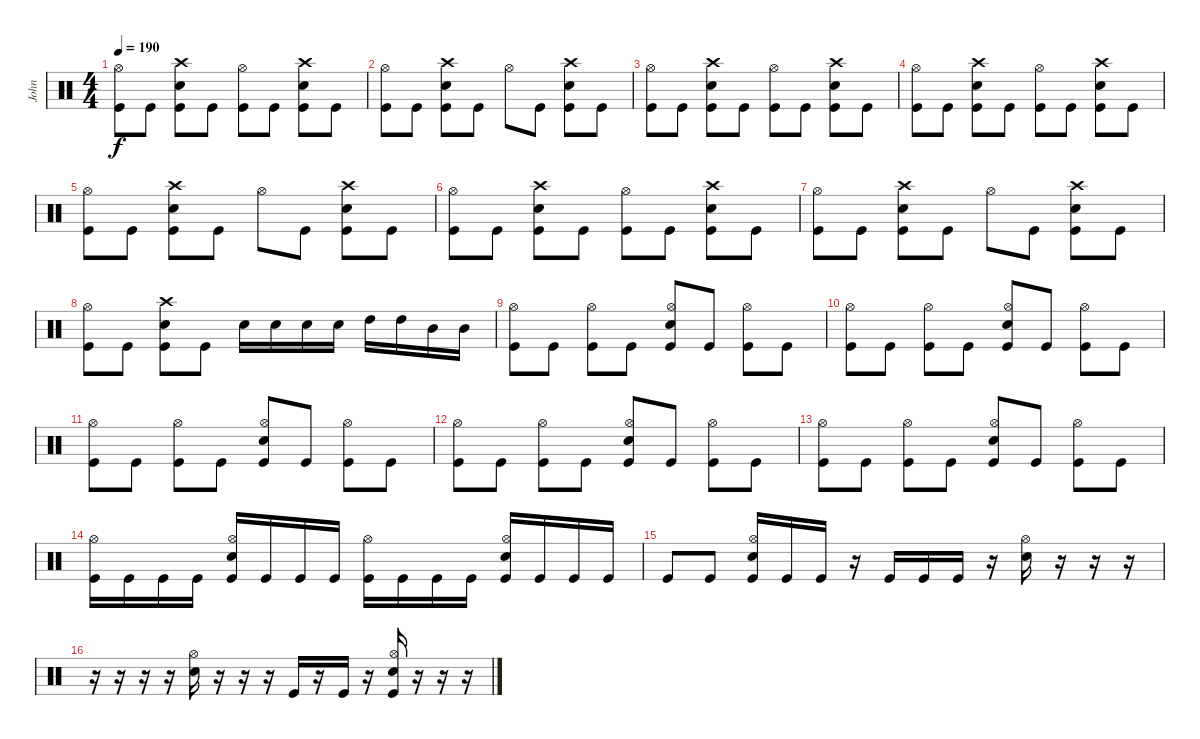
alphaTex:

\track ("John" "John") {instrument percussion}
\staff {score}
\articulation defaults
\ts (4 4)
\tempo 190
\clef neutral
\ks c
("Kick (hit)" "Hi-Hat (open)").8{dy f} "Kick (hit)".8 ("Kick (hit)" "Snare (hit) 2" "Crash high (hit)").8 "Kick (hit)".8 ("Kick (hit)" "Hi-Hat (open)").8 "Kick (hit)".8 ("Kick (hit)" "Snare (hit) 2" "Crash high (hit)").8 "Kick (hit)".8 |
("Kick (hit)" "Hi-Hat (open)").8 "Kick (hit)".8 ("Kick (hit)" "Snare (hit) 2" "Crash high (hit)").8 "Kick (hit)".8 "Hi-Hat (open)".8 "Kick (hit)".8 ("Kick (hit)" "Snare (hit) 2" "Crash high (hit)").8 "Kick (hit)".8 |
("Kick (hit)" "Hi-Hat (open)").8 "Kick (hit)".8 ("Kick (hit)" "Snare (hit) 2" "Crash high (hit)").8 "Kick (hit)".8 ("Kick (hit)" "Hi-Hat (open)").8 "Kick (hit)".8 ("Kick (hit)" "Snare (hit) 2" "Crash high (hit)").8 "Kick (hit)".8 |
("Kick (hit)" "Hi-Hat (open)").8 "Kick (hit)".8 ("Kick (hit)" "Snare (hit) 2" "Crash high (hit)").8 "Kick (hit)".8 ("Kick (hit)" "Hi-Hat (open)").8 "Kick (hit)".8 ("Kick (hit)" "Snare (hit) 2" "Crash high (hit)").8 "Kick (hit)".8 |
("Kick (hit)" "Hi-Hat (open)").8 "Kick (hit)".8 ("Kick (hit)" "Snare (hit) 2" "Crash high (hit)").8 "Kick (hit)".8 "Hi-Hat (open)".8 "Kick (hit)".8 ("Kick (hit)" "Snare (hit) 2" "Crash high (hit)").8 "Kick (hit)".8 |
("Kick (hit)" "Hi-Hat (open)").8 "Kick (hit)".8 ("Kick (hit)" "Snare (hit) 2" "Crash high (hit)").8 "Kick (hit)".8 ("Kick (hit)" "Hi-Hat (open)").8 "Kick (hit)".8 ("Kick (hit)" "Snare (hit) 2" "Crash high (hit)").8 "Kick (hit)".8 |
("Kick (hit)" "Hi-Hat (open)").8 "Kick (hit)".8 ("Kick (hit)" "Snare (hit) 2" "Crash high (hit)").8 "Kick (hit)".8 "Hi-Hat (open)".8 "Kick (hit)".8 ("Kick (hit)" "Snare (hit) 2" "Crash high (hit)").8 "Kick (hit)".8 |
("Kick (hit)" "Hi-Hat (open)").8 "Kick (hit)".8 ("Kick (hit)" "Snare (hit) 2" "Crash high (hit)").8 "Kick (hit)".8 "Snare (hit) 2".16 "Snare (hit) 2".16 "Snare (hit) 2".16 "Snare (hit) 2".16 "High Tom (hit)".16 "High Tom (hit)".16 "Mid Tom (hit)".16 "Mid Tom (hit)".16 |
("Kick (hit)" "Hi-Hat (open)").8 "Kick (hit)".8 ("Kick (hit)" "Hi-Hat (open)").8 "Kick (hit)".8 ("Kick (hit)" "Snare (hit) 2" "Hi-Hat (open)").8 "Kick (hit)".8 ("Kick (hit)" "Hi-Hat (open)").8 "Kick (hit)".8 |
("Kick (hit)" "Hi-Hat (open)").8 "Kick (hit)".8 ("Kick (hit)" "Hi-Hat (open)").8 "Kick (hit)".8 ("Kick (hit)" "Snare (hit) 2" "Hi-Hat (open)").8 "Kick (hit)".8 ("Kick (hit)" "Hi-Hat (open)").8 "Kick (hit)".8 |
("Kick (hit)" "Hi-Hat (open)").8 "Kick (hit)".8 ("Kick (hit)" "Hi-Hat (open)").8 "Kick (hit)".8 ("Kick (hit)" "Snare (hit) 2" "Hi-Hat (open)").8 "Kick (hit)".8 ("Kick (hit)" "Hi-Hat (open)").8 "Kick (hit)".8 |
("Kick (hit)" "Hi-Hat (open)").8 "Kick (hit)".8 ("Kick (hit)" "Hi-Hat (open)").8 "Kick (hit)".8 ("Kick (hit)" "Snare (hit) 2" "Hi-Hat (open)").8 "Kick (hit)".8 ("Kick (hit)" "Hi-Hat (open)").8 "Kick (hit)".8 |
("Kick (hit)" "Hi-Hat (open)").8 "Kick (hit)".8 ("Kick (hit)" "Hi-Hat (open)").8 "Kick (hit)".8 ("Kick (hit)" "Snare (hit) 2" "Hi-Hat (open)").8 "Kick (hit)".8 ("Kick (hit)" "Hi-Hat (open)").8 "Kick (hit)".8 |
("Kick (hit)" "Hi-Hat (open)").16 "Kick (hit)".16 "Kick (hit)".16 "Kick (hit)".16 ("Kick (hit)" "Snare (hit) 2" "Hi-Hat (open)").16 "Kick (hit)".16 "Kick (hit)".16 "Kick (hit)".16 ("Kick (hit)" "Hi-Hat (open)").16 "Kick (hit)".16 "Kick (hit)".16 "Kick (hit)".16 ("Kick (hit)" "Snare (hit) 2" "Hi-Hat (open)").16 "Kick (hit)".16 "Kick (hit)".16 "Kick (hit)".16 |
"Kick (hit)".8 "Kick (hit)".8 ("Kick (hit)" "Snare (hit) 2" "Hi-Hat (open)").16 "Kick (hit)".16 "Kick (hit)".16 r.16 "Kick (hit)".16 "Kick (hit)".16 "Kick (hit)".16 r.16 ("Snare (hit) 2" "Hi-Hat (open)").16 r.16 r.16 r.16 |
r.16 r.16 r.16 r.16 ("Snare (hit) 2" "Hi-Hat (open)").16 r.16 r.16 r.16 "Kick (hit)".16 r.16 "Kick (hit)".16 r.16 ("Kick (hit)" "Snare (hit) 2" "Hi-Hat (open)").16 r.16 r.16 r.16
